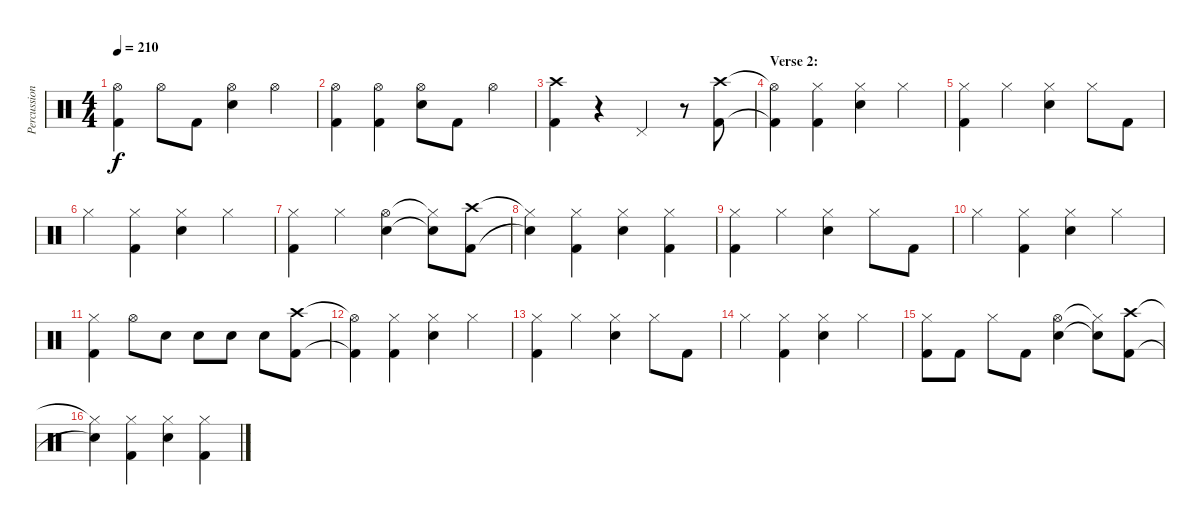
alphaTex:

\track ("Percussion" "Percussion") {instrument percussion}
\staff {score}
\articulation defaults
\ts (4 4)
\tempo 210
\clef neutral
\ks c
("Hi-Hat (open)" "Kick (hit) 2").4{dy f} "Hi-Hat (open)".8 "Kick (hit) 2".8 ("Hi-Hat (open)" "Snare (hit) 2").4 "Hi-Hat (open)".4 |
("Hi-Hat (open)" "Kick (hit) 2").4 ("Hi-Hat (open)" "Kick (hit) 2").4 ("Hi-Hat (open)" "Snare (hit) 2").8 "Kick (hit) 2".8 "Hi-Hat (open)".4 |
("Crash high (hit)" "Kick (hit) 2").4 r.4 "Pedal Hi-Hat (hit)".4 r.8 ("Crash high (hit)" "Kick (hit) 2").8 |
\section ("" "Verse 2:")
("Hi-Hat (open)"{t} "Kick (hit) 2"{t}).4 ("Hi-Hat (closed)" "Kick (hit) 2").4 ("Hi-Hat (closed)" "Snare (hit) 2").4 "Hi-Hat (closed)".4 |
("Hi-Hat (closed)" "Kick (hit) 2").4 "Hi-Hat (closed)".4 ("Hi-Hat (closed)" "Snare (hit) 2").4 "Hi-Hat (closed)".8 "Kick (hit) 2".8 |
"Hi-Hat (closed)".4 ("Hi-Hat (closed)" "Kick (hit) 2").4 ("Hi-Hat (closed)" "Snare (hit) 2").4 "Hi-Hat (closed)".4 |
("Hi-Hat (closed)" "Kick (hit) 2").4 "Hi-Hat (closed)".4 ("Hi-Hat (open)" "Snare (hit) 2").4 ("Hi-Hat (closed)"{t} "Snare (hit)"{t}).8 ("Crash high (hit)" "Kick (hit) 2").8 |
("Hi-Hat (closed)"{t} "Snare (hit)"{t}).4 ("Hi-Hat (closed)" "Kick (hit) 2").4 ("Hi-Hat (closed)" "Snare (hit) 2").4 ("Hi-Hat (closed)" "Kick (hit) 2").4 |
("Hi-Hat (closed)" "Kick (hit) 2").4 "Hi-Hat (closed)".4 ("Hi-Hat (closed)" "Snare (hit) 2").4 "Hi-Hat (closed)".8 "Kick (hit) 2".8 |
"Hi-Hat (closed)".4 ("Hi-Hat (closed)" "Kick (hit) 2").4 ("Hi-Hat (closed)" "Snare (hit) 2").4 "Hi-Hat (closed)".4 |
("Hi-Hat (closed)" "Kick (hit) 2").4 "Hi-Hat (open)".8 "Snare (hit) 2".8 "Snare (hit) 2".8 "Snare (hit) 2".8 "Snare (hit) 2".8 ("Crash high (hit)" "Kick (hit) 2").8 |
("Hi-Hat (open)"{t} "Kick (hit) 2"{t}).4 ("Hi-Hat (closed)" "Kick (hit) 2").4 ("Hi-Hat (closed)" "Snare (hit) 2").4 "Hi-Hat (closed)".4 |
("Hi-Hat (closed)" "Kick (hit) 2").4 "Hi-Hat (closed)".4 ("Hi-Hat (closed)" "Snare (hit) 2").4 "Hi-Hat (closed)".8 "Kick (hit) 2".8 |
"Hi-Hat (closed)".4 ("Hi-Hat (closed)" "Kick (hit) 2").4 ("Hi-Hat (closed)" "Snare (hit) 2").4 "Hi-Hat (closed)".4 |
("Hi-Hat (closed)" "Kick (hit) 2").8 "Kick (hit) 2".8 "Hi-Hat (closed)".8 "Kick (hit) 2".8 ("Hi-Hat (open)" "Snare (hit) 2").4 ("Hi-Hat (closed)"{t} "Snare (hit)"{t}).8 ("Crash high (hit)" "Kick (hit) 2").8 |
("Hi-Hat (closed)"{t} "Snare (hit)"{t}).4 ("Hi-Hat (closed)" "Kick (hit) 2").4 ("Hi-Hat (closed)" "Snare (hit) 2").4 ("Hi-Hat (closed)" "Kick (hit) 2").4
